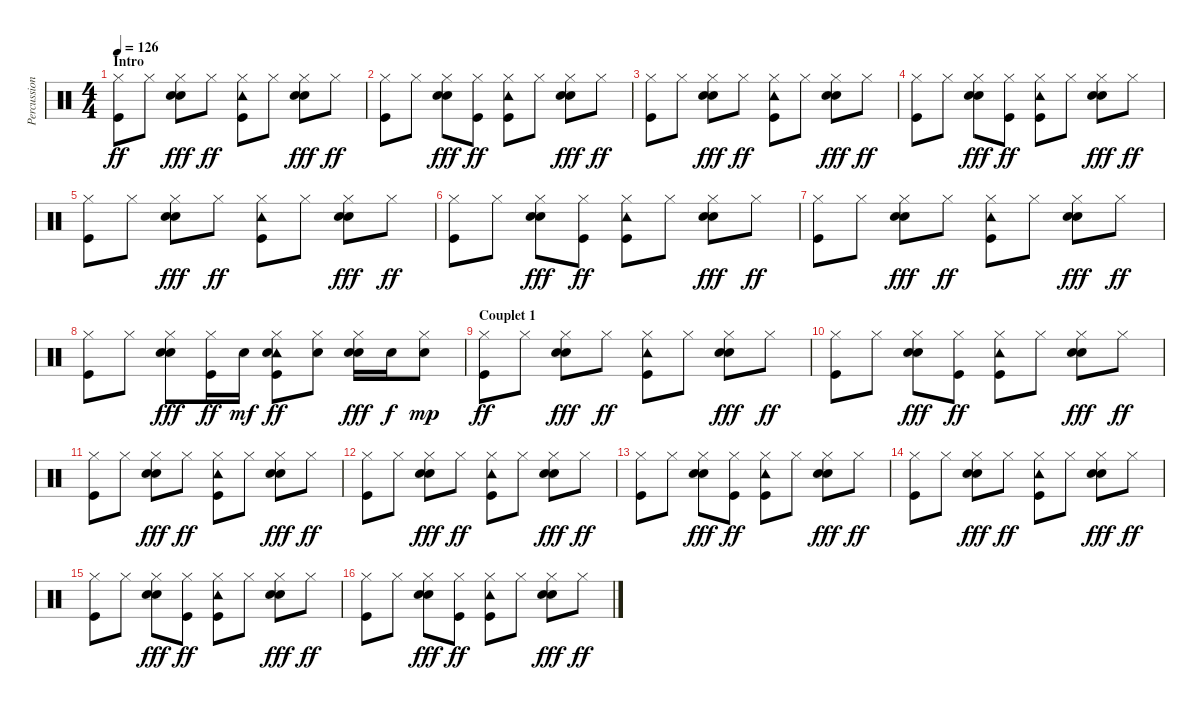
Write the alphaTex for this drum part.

\track ("Percussions" "Percussion") {instrument percussion}
\staff {score}
\articulation defaults
\ts (4 4)
\section ("" "Intro")
\tempo 126
\clef neutral
\ks c
("Hi-Hat (closed)" "Kick (hit)").8{dy ff} "Hi-Hat (closed)".8 ("Hi-Hat (closed)" "Hand Clap (hit)" "Electric Snare (hit)").8{dy fff} "Hi-Hat (closed)".8{dy ff} ("Hi-Hat (closed)" "Tambourine (hit)" "Kick (hit)").8 "Hi-Hat (closed)".8 ("Hi-Hat (closed)" "Hand Clap (hit)" "Electric Snare (hit)").8{dy fff} "Hi-Hat (closed)".8{dy ff} |
("Hi-Hat (closed)" "Kick (hit)").8 "Hi-Hat (closed)".8 ("Hi-Hat (closed)" "Hand Clap (hit)" "Electric Snare (hit)").8{dy fff} ("Hi-Hat (closed)" "Kick (hit)").8{dy ff} ("Hi-Hat (closed)" "Tambourine (hit)" "Kick (hit)").8 "Hi-Hat (closed)".8 ("Hi-Hat (closed)" "Hand Clap (hit)" "Electric Snare (hit)").8{dy fff} "Hi-Hat (closed)".8{dy ff} |
("Hi-Hat (closed)" "Kick (hit)").8 "Hi-Hat (closed)".8 ("Hi-Hat (closed)" "Hand Clap (hit)" "Electric Snare (hit)").8{dy fff} "Hi-Hat (closed)".8{dy ff} ("Hi-Hat (closed)" "Tambourine (hit)" "Kick (hit)").8 "Hi-Hat (closed)".8 ("Hi-Hat (closed)" "Hand Clap (hit)" "Electric Snare (hit)").8{dy fff} "Hi-Hat (closed)".8{dy ff} |
("Hi-Hat (closed)" "Kick (hit)").8 "Hi-Hat (closed)".8 ("Hi-Hat (closed)" "Hand Clap (hit)" "Electric Snare (hit)").8{dy fff} ("Hi-Hat (closed)" "Kick (hit)").8{dy ff} ("Hi-Hat (closed)" "Tambourine (hit)" "Kick (hit)").8 "Hi-Hat (closed)".8 ("Hi-Hat (closed)" "Hand Clap (hit)" "Electric Snare (hit)").8{dy fff} "Hi-Hat (closed)".8{dy ff} |
("Hi-Hat (closed)" "Kick (hit)").8 "Hi-Hat (closed)".8 ("Hi-Hat (closed)" "Hand Clap (hit)" "Electric Snare (hit)").8{dy fff} "Hi-Hat (closed)".8{dy ff} ("Hi-Hat (closed)" "Tambourine (hit)" "Kick (hit)").8 "Hi-Hat (closed)".8 ("Hi-Hat (closed)" "Hand Clap (hit)" "Electric Snare (hit)").8{dy fff} "Hi-Hat (closed)".8{dy ff} |
("Hi-Hat (closed)" "Kick (hit)").8 "Hi-Hat (closed)".8 ("Hi-Hat (closed)" "Hand Clap (hit)" "Electric Snare (hit)").8{dy fff} ("Hi-Hat (closed)" "Kick (hit)").8{dy ff} ("Hi-Hat (closed)" "Tambourine (hit)" "Kick (hit)").8 "Hi-Hat (closed)".8 ("Hi-Hat (closed)" "Hand Clap (hit)" "Electric Snare (hit)").8{dy fff} "Hi-Hat (closed)".8{dy ff} |
("Hi-Hat (closed)" "Kick (hit)").8 "Hi-Hat (closed)".8 ("Hi-Hat (closed)" "Hand Clap (hit)" "Electric Snare (hit)").8{dy fff} "Hi-Hat (closed)".8{dy ff} ("Hi-Hat (closed)" "Tambourine (hit)" "Kick (hit)").8 "Hi-Hat (closed)".8 ("Hi-Hat (closed)" "Hand Clap (hit)" "Electric Snare (hit)").8{dy fff} "Hi-Hat (closed)".8{dy ff} |
("Hi-Hat (closed)" "Kick (hit)").8 "Hi-Hat (closed)".8 ("Hi-Hat (closed)" "Hand Clap (hit)" "Electric Snare (hit)").8{dy fff} ("Hi-Hat (closed)" "Kick (hit)").16{dy ff} "Electric Snare (hit)".16{dy mf} ("Hi-Hat (closed)" "Tambourine (hit)" "Electric Snare (hit)" "Kick (hit)").8{dy ff} ("Hi-Hat (closed)" "Electric Snare (hit)").8 ("Hi-Hat (closed)" "Hand Clap (hit)" "Electric Snare (hit)").16{dy fff} "Electric Snare (hit)".16{dy f} ("Hi-Hat (closed)" "Electric Snare (hit)").8{dy mp} |
\section ("" "Couplet 1")
("Hi-Hat (closed)" "Kick (hit)").8{dy ff} "Hi-Hat (closed)".8 ("Hi-Hat (closed)" "Hand Clap (hit)" "Electric Snare (hit)").8{dy fff} "Hi-Hat (closed)".8{dy ff} ("Hi-Hat (closed)" "Tambourine (hit)" "Kick (hit)").8 "Hi-Hat (closed)".8 ("Hi-Hat (closed)" "Hand Clap (hit)" "Electric Snare (hit)").8{dy fff} "Hi-Hat (closed)".8{dy ff} |
("Hi-Hat (closed)" "Kick (hit)").8 "Hi-Hat (closed)".8 ("Hi-Hat (closed)" "Hand Clap (hit)" "Electric Snare (hit)").8{dy fff} ("Hi-Hat (closed)" "Kick (hit)").8{dy ff} ("Hi-Hat (closed)" "Tambourine (hit)" "Kick (hit)").8 "Hi-Hat (closed)".8 ("Hi-Hat (closed)" "Hand Clap (hit)" "Electric Snare (hit)").8{dy fff} "Hi-Hat (closed)".8{dy ff} |
("Hi-Hat (closed)" "Kick (hit)").8 "Hi-Hat (closed)".8 ("Hi-Hat (closed)" "Hand Clap (hit)" "Electric Snare (hit)").8{dy fff} "Hi-Hat (closed)".8{dy ff} ("Hi-Hat (closed)" "Tambourine (hit)" "Kick (hit)").8 "Hi-Hat (closed)".8 ("Hi-Hat (closed)" "Hand Clap (hit)" "Electric Snare (hit)").8{dy fff} "Hi-Hat (closed)".8{dy ff} |
("Hi-Hat (closed)" "Kick (hit)").8 "Hi-Hat (closed)".8 ("Hi-Hat (closed)" "Hand Clap (hit)" "Electric Snare (hit)").8{dy fff} "Hi-Hat (closed)".8{dy ff} ("Hi-Hat (closed)" "Tambourine (hit)" "Kick (hit)").8 "Hi-Hat (closed)".8 ("Hi-Hat (closed)" "Hand Clap (hit)" "Electric Snare (hit)").8{dy fff} "Hi-Hat (closed)".8{dy ff} |
("Hi-Hat (closed)" "Kick (hit)").8 "Hi-Hat (closed)".8 ("Hi-Hat (closed)" "Hand Clap (hit)" "Electric Snare (hit)").8{dy fff} ("Hi-Hat (closed)" "Kick (hit)").8{dy ff} ("Hi-Hat (closed)" "Tambourine (hit)" "Kick (hit)").8 "Hi-Hat (closed)".8 ("Hi-Hat (closed)" "Hand Clap (hit)" "Electric Snare (hit)").8{dy fff} "Hi-Hat (closed)".8{dy ff} |
("Hi-Hat (closed)" "Kick (hit)").8 "Hi-Hat (closed)".8 ("Hi-Hat (closed)" "Hand Clap (hit)" "Electric Snare (hit)").8{dy fff} "Hi-Hat (closed)".8{dy ff} ("Hi-Hat (closed)" "Tambourine (hit)" "Kick (hit)").8 "Hi-Hat (closed)".8 ("Hi-Hat (closed)" "Hand Clap (hit)" "Electric Snare (hit)").8{dy fff} "Hi-Hat (closed)".8{dy ff} |
("Hi-Hat (closed)" "Kick (hit)").8 "Hi-Hat (closed)".8 ("Hi-Hat (closed)" "Hand Clap (hit)" "Electric Snare (hit)").8{dy fff} ("Hi-Hat (closed)" "Kick (hit)").8{dy ff} ("Hi-Hat (closed)" "Tambourine (hit)" "Kick (hit)").8 "Hi-Hat (closed)".8 ("Hi-Hat (closed)" "Hand Clap (hit)" "Electric Snare (hit)").8{dy fff} "Hi-Hat (closed)".8{dy ff} |
("Hi-Hat (closed)" "Kick (hit)").8 "Hi-Hat (closed)".8 ("Hi-Hat (closed)" "Hand Clap (hit)" "Electric Snare (hit)").8{dy fff} ("Hi-Hat (closed)" "Kick (hit)").8{dy ff} ("Hi-Hat (closed)" "Tambourine (hit)" "Kick (hit)").8 "Hi-Hat (closed)".8 ("Hi-Hat (closed)" "Hand Clap (hit)" "Electric Snare (hit)").8{dy fff} "Hi-Hat (closed)".8{dy ff}
